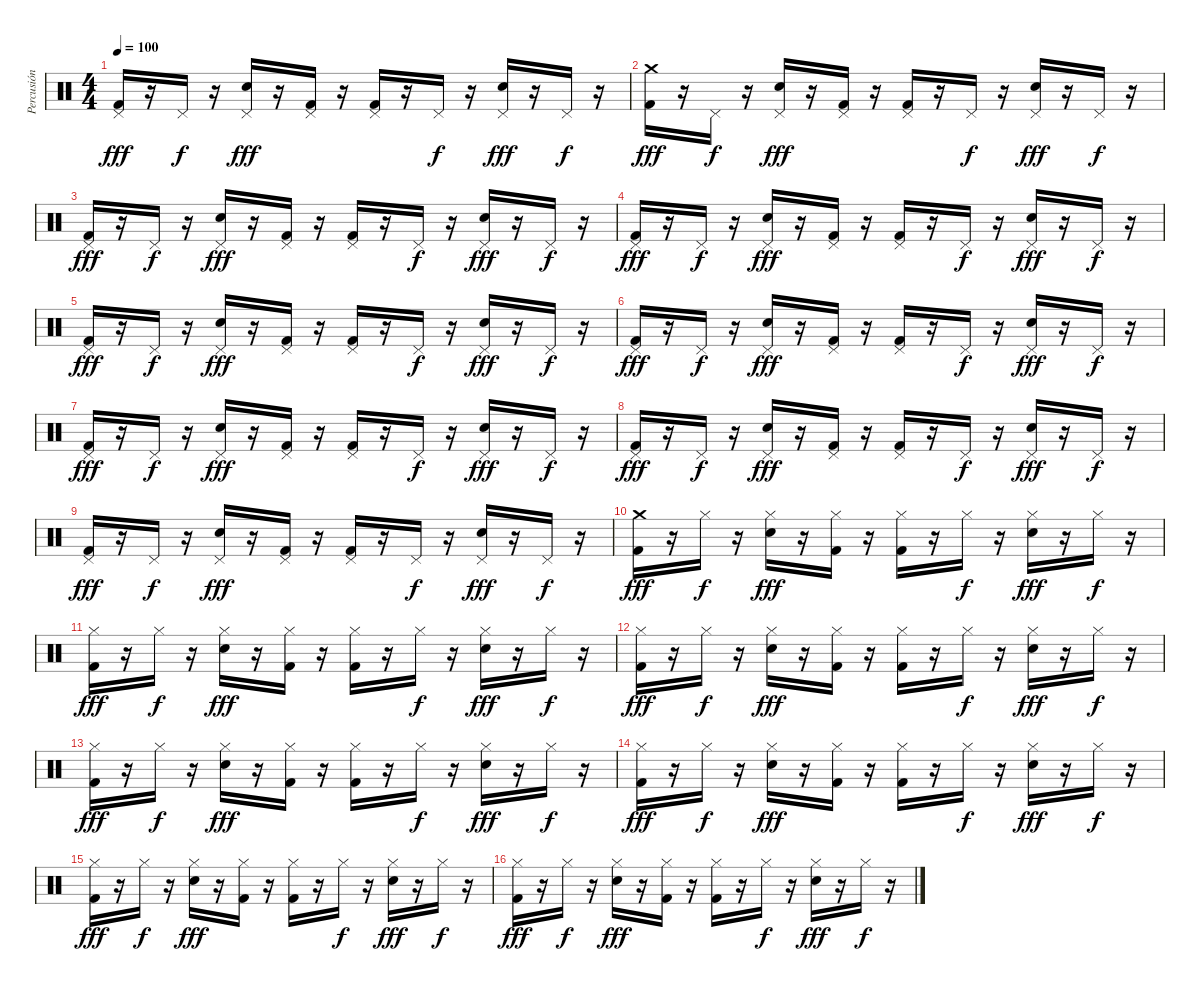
\track ("Percusión" "Percusión") {instrument percussion}
\staff {score}
\articulation defaults
\ts (4 4)
\tempo 100
\clef neutral
\ks c
("Pedal Hi-Hat (hit)" "Kick (hit) 2").16{dy fff} r.16 "Pedal Hi-Hat (hit)".16{dy f} r.16 ("Pedal Hi-Hat (hit)" "Electric Snare (hit)").16{dy fff} r.16 ("Pedal Hi-Hat (hit)" "Kick (hit) 2").16 r.16 ("Pedal Hi-Hat (hit)" "Kick (hit) 2").16 r.16 "Pedal Hi-Hat (hit)".16{dy f} r.16 ("Pedal Hi-Hat (hit)" "Electric Snare (hit)").16{dy fff} r.16 "Pedal Hi-Hat (hit)".16{dy f} r.16 |
("Crash medium (hit)" "Kick (hit) 2").16{dy fff} r.16 "Pedal Hi-Hat (hit)".16{dy f} r.16 ("Pedal Hi-Hat (hit)" "Electric Snare (hit)").16{dy fff} r.16 ("Pedal Hi-Hat (hit)" "Kick (hit) 2").16 r.16 ("Pedal Hi-Hat (hit)" "Kick (hit) 2").16 r.16 "Pedal Hi-Hat (hit)".16{dy f} r.16 ("Pedal Hi-Hat (hit)" "Electric Snare (hit)").16{dy fff} r.16 "Pedal Hi-Hat (hit)".16{dy f} r.16 |
("Pedal Hi-Hat (hit)" "Kick (hit) 2").16{dy fff} r.16 "Pedal Hi-Hat (hit)".16{dy f} r.16 ("Pedal Hi-Hat (hit)" "Electric Snare (hit)").16{dy fff} r.16 ("Pedal Hi-Hat (hit)" "Kick (hit) 2").16 r.16 ("Pedal Hi-Hat (hit)" "Kick (hit) 2").16 r.16 "Pedal Hi-Hat (hit)".16{dy f} r.16 ("Pedal Hi-Hat (hit)" "Electric Snare (hit)").16{dy fff} r.16 "Pedal Hi-Hat (hit)".16{dy f} r.16 |
("Pedal Hi-Hat (hit)" "Kick (hit) 2").16{dy fff} r.16 "Pedal Hi-Hat (hit)".16{dy f} r.16 ("Pedal Hi-Hat (hit)" "Electric Snare (hit)").16{dy fff} r.16 ("Pedal Hi-Hat (hit)" "Kick (hit) 2").16 r.16 ("Pedal Hi-Hat (hit)" "Kick (hit) 2").16 r.16 "Pedal Hi-Hat (hit)".16{dy f} r.16 ("Pedal Hi-Hat (hit)" "Electric Snare (hit)").16{dy fff} r.16 "Pedal Hi-Hat (hit)".16{dy f} r.16 |
("Pedal Hi-Hat (hit)" "Kick (hit) 2").16{dy fff} r.16 "Pedal Hi-Hat (hit)".16{dy f} r.16 ("Pedal Hi-Hat (hit)" "Electric Snare (hit)").16{dy fff} r.16 ("Pedal Hi-Hat (hit)" "Kick (hit) 2").16 r.16 ("Pedal Hi-Hat (hit)" "Kick (hit) 2").16 r.16 "Pedal Hi-Hat (hit)".16{dy f} r.16 ("Pedal Hi-Hat (hit)" "Electric Snare (hit)").16{dy fff} r.16 "Pedal Hi-Hat (hit)".16{dy f} r.16 |
("Pedal Hi-Hat (hit)" "Kick (hit) 2").16{dy fff} r.16 "Pedal Hi-Hat (hit)".16{dy f} r.16 ("Pedal Hi-Hat (hit)" "Electric Snare (hit)").16{dy fff} r.16 ("Pedal Hi-Hat (hit)" "Kick (hit) 2").16 r.16 ("Pedal Hi-Hat (hit)" "Kick (hit) 2").16 r.16 "Pedal Hi-Hat (hit)".16{dy f} r.16 ("Pedal Hi-Hat (hit)" "Electric Snare (hit)").16{dy fff} r.16 "Pedal Hi-Hat (hit)".16{dy f} r.16 |
("Pedal Hi-Hat (hit)" "Kick (hit) 2").16{dy fff} r.16 "Pedal Hi-Hat (hit)".16{dy f} r.16 ("Pedal Hi-Hat (hit)" "Electric Snare (hit)").16{dy fff} r.16 ("Pedal Hi-Hat (hit)" "Kick (hit) 2").16 r.16 ("Pedal Hi-Hat (hit)" "Kick (hit) 2").16 r.16 "Pedal Hi-Hat (hit)".16{dy f} r.16 ("Pedal Hi-Hat (hit)" "Electric Snare (hit)").16{dy fff} r.16 "Pedal Hi-Hat (hit)".16{dy f} r.16 |
("Pedal Hi-Hat (hit)" "Kick (hit) 2").16{dy fff} r.16 "Pedal Hi-Hat (hit)".16{dy f} r.16 ("Pedal Hi-Hat (hit)" "Electric Snare (hit)").16{dy fff} r.16 ("Pedal Hi-Hat (hit)" "Kick (hit) 2").16 r.16 ("Pedal Hi-Hat (hit)" "Kick (hit) 2").16 r.16 "Pedal Hi-Hat (hit)".16{dy f} r.16 ("Pedal Hi-Hat (hit)" "Electric Snare (hit)").16{dy fff} r.16 "Pedal Hi-Hat (hit)".16{dy f} r.16 |
("Pedal Hi-Hat (hit)" "Kick (hit) 2").16{dy fff} r.16 "Pedal Hi-Hat (hit)".16{dy f} r.16 ("Pedal Hi-Hat (hit)" "Electric Snare (hit)").16{dy fff} r.16 ("Pedal Hi-Hat (hit)" "Kick (hit) 2").16 r.16 ("Pedal Hi-Hat (hit)" "Kick (hit) 2").16 r.16 "Pedal Hi-Hat (hit)".16{dy f} r.16 ("Pedal Hi-Hat (hit)" "Electric Snare (hit)").16{dy fff} r.16 "Pedal Hi-Hat (hit)".16{dy f} r.16 |
("Crash medium (hit)" "Kick (hit) 2").16{dy fff} r.16 "Hi-Hat (closed)".16{dy f} r.16 ("Hi-Hat (closed)" "Electric Snare (hit)").16{dy fff} r.16 ("Hi-Hat (closed)" "Kick (hit) 2").16 r.16 ("Hi-Hat (closed)" "Kick (hit) 2").16 r.16 "Hi-Hat (closed)".16{dy f} r.16 ("Hi-Hat (closed)" "Electric Snare (hit)").16{dy fff} r.16 "Hi-Hat (closed)".16{dy f} r.16 |
("Hi-Hat (closed)" "Kick (hit) 2").16{dy fff} r.16 "Hi-Hat (closed)".16{dy f} r.16 ("Hi-Hat (closed)" "Electric Snare (hit)").16{dy fff} r.16 ("Hi-Hat (closed)" "Kick (hit) 2").16 r.16 ("Hi-Hat (closed)" "Kick (hit) 2").16 r.16 "Hi-Hat (closed)".16{dy f} r.16 ("Hi-Hat (closed)" "Electric Snare (hit)").16{dy fff} r.16 "Hi-Hat (closed)".16{dy f} r.16 |
("Hi-Hat (closed)" "Kick (hit) 2").16{dy fff} r.16 "Hi-Hat (closed)".16{dy f} r.16 ("Hi-Hat (closed)" "Electric Snare (hit)").16{dy fff} r.16 ("Hi-Hat (closed)" "Kick (hit) 2").16 r.16 ("Hi-Hat (closed)" "Kick (hit) 2").16 r.16 "Hi-Hat (closed)".16{dy f} r.16 ("Hi-Hat (closed)" "Electric Snare (hit)").16{dy fff} r.16 "Hi-Hat (closed)".16{dy f} r.16 |
("Hi-Hat (closed)" "Kick (hit) 2").16{dy fff} r.16 "Hi-Hat (closed)".16{dy f} r.16 ("Hi-Hat (closed)" "Electric Snare (hit)").16{dy fff} r.16 ("Hi-Hat (closed)" "Kick (hit) 2").16 r.16 ("Hi-Hat (closed)" "Kick (hit) 2").16 r.16 "Hi-Hat (closed)".16{dy f} r.16 ("Hi-Hat (closed)" "Electric Snare (hit)").16{dy fff} r.16 "Hi-Hat (closed)".16{dy f} r.16 |
("Hi-Hat (closed)" "Kick (hit) 2").16{dy fff} r.16 "Hi-Hat (closed)".16{dy f} r.16 ("Hi-Hat (closed)" "Electric Snare (hit)").16{dy fff} r.16 ("Hi-Hat (closed)" "Kick (hit) 2").16 r.16 ("Hi-Hat (closed)" "Kick (hit) 2").16 r.16 "Hi-Hat (closed)".16{dy f} r.16 ("Hi-Hat (closed)" "Electric Snare (hit)").16{dy fff} r.16 "Hi-Hat (closed)".16{dy f} r.16 |
("Hi-Hat (closed)" "Kick (hit) 2").16{dy fff} r.16 "Hi-Hat (closed)".16{dy f} r.16 ("Hi-Hat (closed)" "Electric Snare (hit)").16{dy fff} r.16 ("Hi-Hat (closed)" "Kick (hit) 2").16 r.16 ("Hi-Hat (closed)" "Kick (hit) 2").16 r.16 "Hi-Hat (closed)".16{dy f} r.16 ("Hi-Hat (closed)" "Electric Snare (hit)").16{dy fff} r.16 "Hi-Hat (closed)".16{dy f} r.16 |
("Hi-Hat (closed)" "Kick (hit) 2").16{dy fff} r.16 "Hi-Hat (closed)".16{dy f} r.16 ("Hi-Hat (closed)" "Electric Snare (hit)").16{dy fff} r.16 ("Hi-Hat (closed)" "Kick (hit) 2").16 r.16 ("Hi-Hat (closed)" "Kick (hit) 2").16 r.16 "Hi-Hat (closed)".16{dy f} r.16 ("Hi-Hat (closed)" "Electric Snare (hit)").16{dy fff} r.16 "Hi-Hat (closed)".16{dy f} r.16
